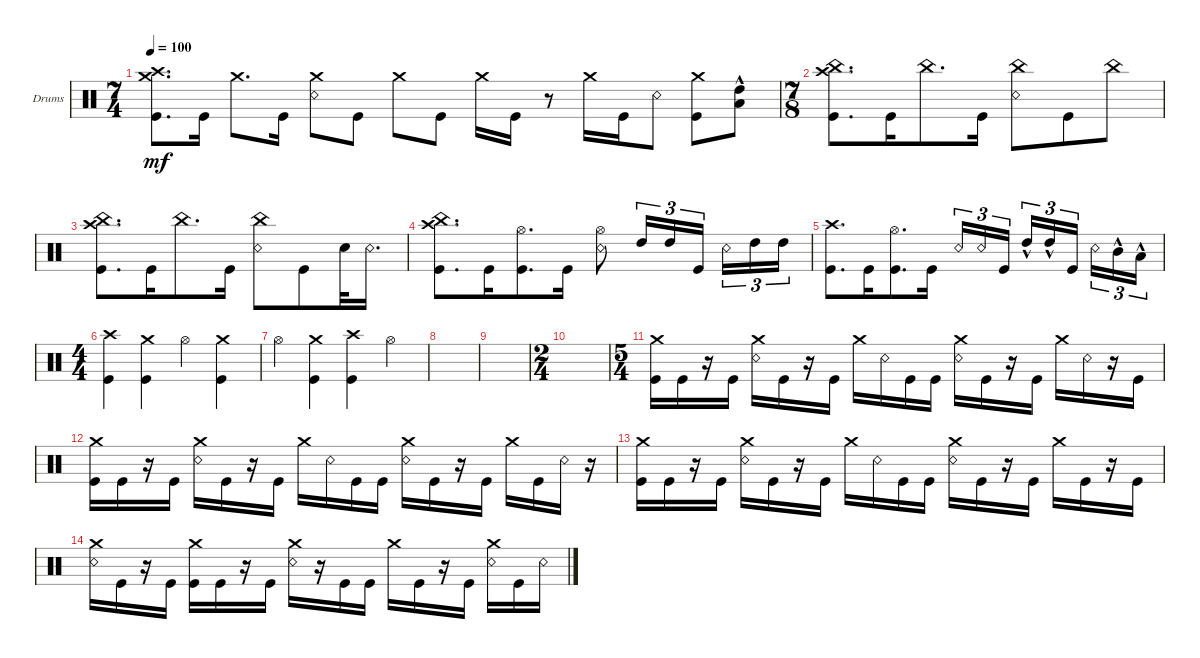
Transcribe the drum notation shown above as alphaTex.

\defaultSystemsLayout 4
\bracketExtendMode groupsimilarinstruments
\firstSystemTrackNameOrientation horizontal
\otherSystemsTrackNameOrientation horizontal
\track ("Drumkit" "Drums") {instrument percussion}
\staff {score}
\articulation defaults
\ts (7 4)
\tempo 100
\clef neutral
\ks c
("Kick (hit)" "Crash high (hit)" "Crash medium (hit)").8{d dy mf} "Kick (hit)".16 "Crash medium (hit)".8{d} "Kick (hit)".16 ("Snare (rim shot)" "Crash medium (hit)").8 "Kick (hit)".8 "Crash medium (hit)".8 "Kick (hit)".8 "Crash medium (hit)".16 "Kick (hit)".16 r.8 "Crash medium (hit)".16 "Kick (hit)".16 "Snare (rim shot)".8 ("Kick (hit)" "Crash medium (hit)").8 ("Low Tom (hit)"{hac} "High Tom (hit)"{hac}).8 |
\ts (7 8)
("Kick (hit)" "China (hit)" "Crash high (hit)").8{d} "Kick (hit)".16 "China (hit)".8{d} "Kick (hit)".16 ("Snare (rim shot)" "China (hit)").8 "Kick (hit)".8 "China (hit)".8 |
("Kick (hit)" "China (hit)" "Crash high (hit)").8{d} "Kick (hit)".16 "China (hit)".8{d} "Kick (hit)".16 ("Snare (rim shot)" "China (hit)").8 "Kick (hit)".8 "Snare (hit) 2".32 "Snare (rim shot)".16{d} |
("Kick (hit)" "China (hit)" "Crash high (hit)").8{d} "Kick (hit)".16 ("Hi-Hat (open)" "Kick (hit)").8{d} "Kick (hit)".16 ("Snare (rim shot)" "Hi-Hat (open)").8 "High Tom (hit)".16{tu (3 2)} "High Tom (hit)".16{tu (3 2)} "Kick (hit)".16{tu (3 2)} "Snare (rim shot)".16{tu (3 2)} "High Tom (hit)".16{tu (3 2)} "High Tom (hit)".16{tu (3 2)} |
("Kick (hit)" "Crash high (hit)").8{d} "Kick (hit)".16 ("Hi-Hat (open)" "Kick (hit)").8{d} "Kick (hit)".16 "Snare (rim shot)".16{tu (3 2)} "Snare (rim shot)".16{tu (3 2)} "Kick (hit)".16{tu (3 2)} "High Tom (hit)"{hac}.16{tu (3 2)} "High Tom (hit)"{hac}.16{tu (3 2)} "Kick (hit)".16{tu (3 2)} "Snare (rim shot)".16{tu (3 2)} "Mid Tom (hit)"{hac}.16{tu (3 2)} "Low Tom (hit)"{hac}.16{tu (3 2)} |
\ts (4 4)
("Kick (hit)" "Crash high (hit)").4 ("Kick (hit)" "Crash medium (hit)").4 "Hi-Hat (open)".4 ("Crash medium (hit)" "Kick (hit)").4 |
"Hi-Hat (open)".4 ("Kick (hit)" "Crash medium (hit)").4 ("Crash high (hit)" "Kick (hit)").4 "Hi-Hat (open)".4 |
|
|
\ts (2 4)
|
\ts (5 4)
("Kick (hit)" "Crash medium (hit)").16 "Kick (hit)".16 r.16 "Kick (hit)".16 ("Snare (rim shot)" "Crash medium (hit)").16 "Kick (hit)".16 r.16 "Kick (hit)".16 "Crash medium (hit)".16 "Snare (rim shot)".16 "Kick (hit)".16 "Kick (hit)".16 ("Snare (rim shot)" "Crash medium (hit)").16 "Kick (hit)".16 r.16 "Kick (hit)".16 "Crash medium (hit)".16 "Snare (rim shot)".16 r.16 "Kick (hit)".16 |
("Kick (hit)" "Crash medium (hit)").16 "Kick (hit)".16 r.16 "Kick (hit)".16 ("Snare (rim shot)" "Crash medium (hit)").16 "Kick (hit)".16 r.16 "Kick (hit)".16 "Crash medium (hit)".16 "Snare (rim shot)".16 "Kick (hit)".16 "Kick (hit)".16 ("Snare (rim shot)" "Crash medium (hit)").16 "Kick (hit)".16 r.16 "Kick (hit)".16 "Crash medium (hit)".16 "Kick (hit)".16 "Snare (rim shot)".16 r.16 |
("Kick (hit)" "Crash medium (hit)").16 "Kick (hit)".16 r.16 "Kick (hit)".16 ("Snare (rim shot)" "Crash medium (hit)").16 "Kick (hit)".16 r.16 "Kick (hit)".16 "Crash medium (hit)".16 "Snare (rim shot)".16 "Kick (hit)".16 "Kick (hit)".16 ("Snare (rim shot)" "Crash medium (hit)").16 "Kick (hit)".16 r.16 "Kick (hit)".16 "Crash medium (hit)".16 "Kick (hit)".16 r.16 "Kick (hit)".16 |
("Crash medium (hit)" "Snare (rim shot)").16 "Kick (hit)".16 r.16 "Kick (hit)".16 ("Crash medium (hit)" "Kick (hit)").16 "Kick (hit)".16 r.16 "Kick (hit)".16 ("Crash medium (hit)" "Snare (rim shot)").16 r.16 "Kick (hit)".16 "Kick (hit)".16 "Crash medium (hit)".16 "Kick (hit)".16 r.16 "Kick (hit)".16 ("Crash medium (hit)" "Snare (rim shot)").16 "Kick (hit)".16 "Snare (rim shot)".16
